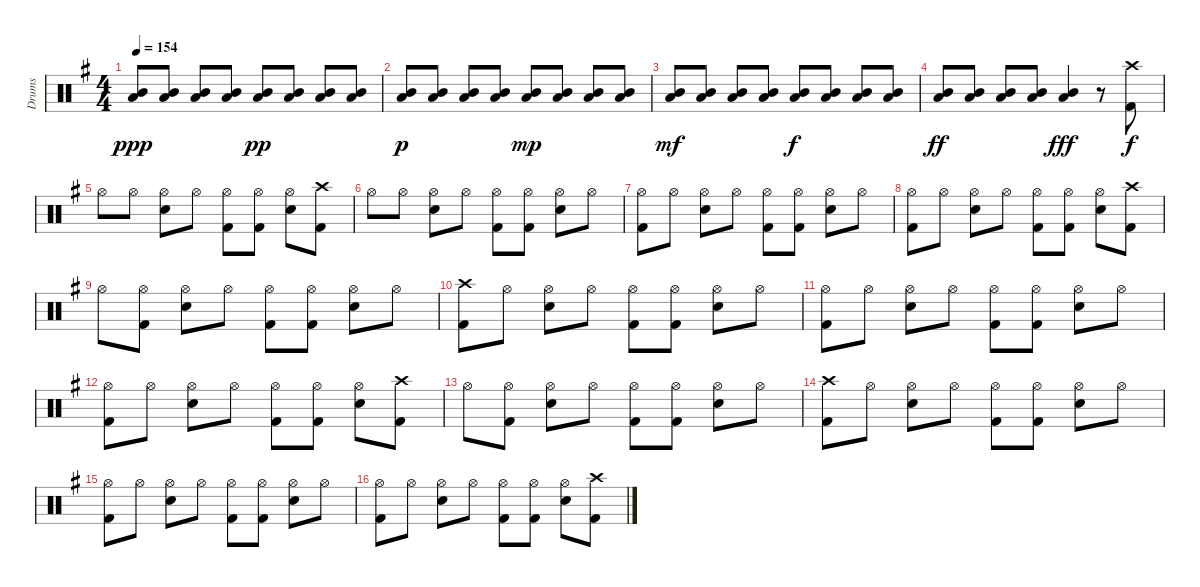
\track ("Drums" "Drums") {instrument percussion}
\staff {score}
\articulation defaults
\ts (4 4)
\tempo 154
\clef neutral
\ks g
("Low Tom (hit)" "Mid Tom (hit)").8{dy ppp} ("Low Tom (hit)" "Mid Tom (hit)").8 ("Low Tom (hit)" "Mid Tom (hit)").8 ("Low Tom (hit)" "Mid Tom (hit)").8 ("Low Tom (hit)" "Mid Tom (hit)").8{dy pp} ("Low Tom (hit)" "Mid Tom (hit)").8 ("Low Tom (hit)" "Mid Tom (hit)").8 ("Low Tom (hit)" "Mid Tom (hit)").8 |
("Low Tom (hit)" "Mid Tom (hit)").8{dy p} ("Low Tom (hit)" "Mid Tom (hit)").8 ("Low Tom (hit)" "Mid Tom (hit)").8 ("Low Tom (hit)" "Mid Tom (hit)").8 ("Low Tom (hit)" "Mid Tom (hit)").8{dy mp} ("Low Tom (hit)" "Mid Tom (hit)").8 ("Low Tom (hit)" "Mid Tom (hit)").8 ("Low Tom (hit)" "Mid Tom (hit)").8 |
("Low Tom (hit)" "Mid Tom (hit)").8{dy mf} ("Low Tom (hit)" "Mid Tom (hit)").8 ("Low Tom (hit)" "Mid Tom (hit)").8 ("Low Tom (hit)" "Mid Tom (hit)").8 ("Low Tom (hit)" "Mid Tom (hit)").8{dy f} ("Low Tom (hit)" "Mid Tom (hit)").8 ("Low Tom (hit)" "Mid Tom (hit)").8 ("Low Tom (hit)" "Mid Tom (hit)").8 |
("Low Tom (hit)" "Mid Tom (hit)").8{dy ff} ("Low Tom (hit)" "Mid Tom (hit)").8 ("Low Tom (hit)" "Mid Tom (hit)").8 ("Low Tom (hit)" "Mid Tom (hit)").8 ("Low Tom (hit)" "Mid Tom (hit)").4{dy fff} r.8 ("Kick (hit) 2" "Crash high (hit)").8{dy f} |
"Hi-Hat (open)".8 "Hi-Hat (open)".8 ("Hi-Hat (open)" "Electric Snare (hit)").8 "Hi-Hat (open)".8 ("Hi-Hat (open)" "Kick (hit) 2").8 ("Hi-Hat (open)" "Kick (hit) 2").8 ("Hi-Hat (open)" "Electric Snare (hit)").8 ("Crash high (hit)" "Kick (hit) 2").8 |
"Hi-Hat (open)".8 "Hi-Hat (open)".8 ("Hi-Hat (open)" "Electric Snare (hit)").8 "Hi-Hat (open)".8 ("Hi-Hat (open)" "Kick (hit) 2").8 ("Hi-Hat (open)" "Kick (hit) 2").8 ("Hi-Hat (open)" "Electric Snare (hit)").8 "Hi-Hat (open)".8 |
("Hi-Hat (open)" "Kick (hit) 2").8 "Hi-Hat (open)".8 ("Hi-Hat (open)" "Electric Snare (hit)").8 "Hi-Hat (open)".8 ("Hi-Hat (open)" "Kick (hit) 2").8 ("Kick (hit) 2" "Hi-Hat (open)").8 ("Hi-Hat (open)" "Electric Snare (hit)").8 "Hi-Hat (open)".8 |
("Hi-Hat (open)" "Kick (hit) 2").8 "Hi-Hat (open)".8 ("Hi-Hat (open)" "Electric Snare (hit)").8 "Hi-Hat (open)".8 ("Hi-Hat (open)" "Kick (hit) 2").8 ("Hi-Hat (open)" "Kick (hit) 2").8 ("Hi-Hat (open)" "Electric Snare (hit)").8 ("Crash high (hit)" "Kick (hit) 2").8 |
"Hi-Hat (open)".8 ("Kick (hit) 2" "Hi-Hat (open)").8 ("Hi-Hat (open)" "Electric Snare (hit)").8 "Hi-Hat (open)".8 ("Hi-Hat (open)" "Kick (hit) 2").8 ("Hi-Hat (open)" "Kick (hit) 2").8 ("Hi-Hat (open)" "Electric Snare (hit)").8 "Hi-Hat (open)".8 |
("Crash high (hit)" "Kick (hit) 2").8 "Hi-Hat (open)".8 ("Hi-Hat (open)" "Electric Snare (hit)").8 "Hi-Hat (open)".8 ("Hi-Hat (open)" "Kick (hit) 2").8 ("Kick (hit) 2" "Hi-Hat (open)").8 ("Hi-Hat (open)" "Electric Snare (hit)").8 "Hi-Hat (open)".8 |
("Hi-Hat (open)" "Kick (hit) 2").8 "Hi-Hat (open)".8 ("Hi-Hat (open)" "Electric Snare (hit)").8 "Hi-Hat (open)".8 ("Hi-Hat (open)" "Kick (hit) 2").8 ("Kick (hit) 2" "Hi-Hat (open)").8 ("Hi-Hat (open)" "Electric Snare (hit)").8 "Hi-Hat (open)".8 |
("Hi-Hat (open)" "Kick (hit) 2").8 "Hi-Hat (open)".8 ("Hi-Hat (open)" "Electric Snare (hit)").8 "Hi-Hat (open)".8 ("Hi-Hat (open)" "Kick (hit) 2").8 ("Hi-Hat (open)" "Kick (hit) 2").8 ("Hi-Hat (open)" "Electric Snare (hit)").8 ("Crash high (hit)" "Kick (hit) 2").8 |
"Hi-Hat (open)".8 ("Kick (hit) 2" "Hi-Hat (open)").8 ("Hi-Hat (open)" "Electric Snare (hit)").8 "Hi-Hat (open)".8 ("Hi-Hat (open)" "Kick (hit) 2").8 ("Hi-Hat (open)" "Kick (hit) 2").8 ("Hi-Hat (open)" "Electric Snare (hit)").8 "Hi-Hat (open)".8 |
("Crash high (hit)" "Kick (hit) 2").8 "Hi-Hat (open)".8 ("Hi-Hat (open)" "Electric Snare (hit)").8 "Hi-Hat (open)".8 ("Hi-Hat (open)" "Kick (hit) 2").8 ("Kick (hit) 2" "Hi-Hat (open)").8 ("Hi-Hat (open)" "Electric Snare (hit)").8 "Hi-Hat (open)".8 |
("Hi-Hat (open)" "Kick (hit) 2").8 "Hi-Hat (open)".8 ("Hi-Hat (open)" "Electric Snare (hit)").8 "Hi-Hat (open)".8 ("Hi-Hat (open)" "Kick (hit) 2").8 ("Kick (hit) 2" "Hi-Hat (open)").8 ("Hi-Hat (open)" "Electric Snare (hit)").8 "Hi-Hat (open)".8 |
("Hi-Hat (open)" "Kick (hit) 2").8 "Hi-Hat (open)".8 ("Hi-Hat (open)" "Electric Snare (hit)").8 "Hi-Hat (open)".8 ("Hi-Hat (open)" "Kick (hit) 2").8 ("Hi-Hat (open)" "Kick (hit) 2").8 ("Hi-Hat (open)" "Electric Snare (hit)").8 ("Crash high (hit)" "Kick (hit) 2").8
